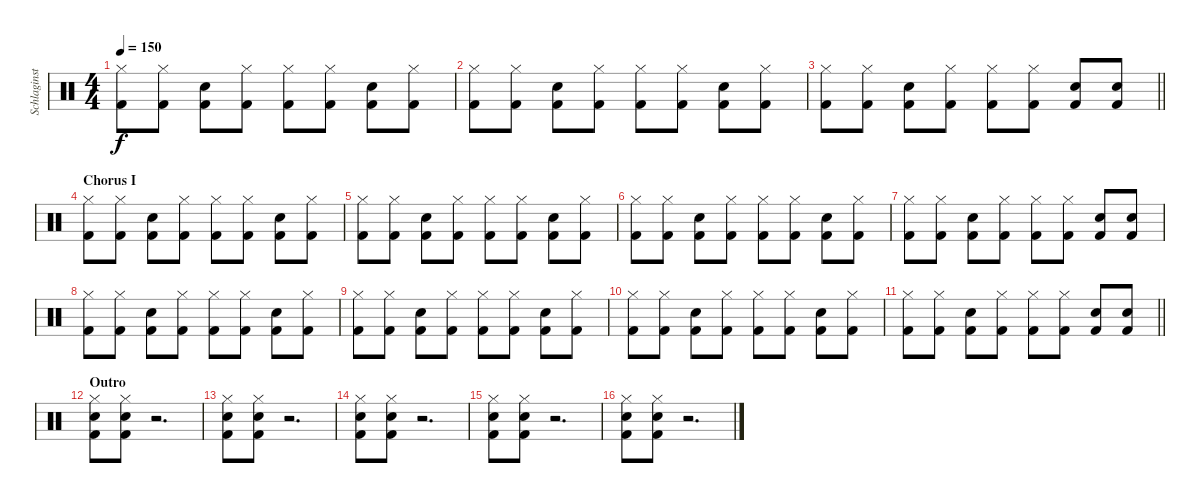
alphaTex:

\track ("Schlaginstrumente - Auswahl" "Schlaginst") {instrument percussion}
\staff {score}
\articulation defaults
\ts (4 4)
\tempo 150
\clef neutral
\ks c
("Hi-Hat (closed)" "Kick (hit) 2").8{dy f} ("Hi-Hat (closed)" "Kick (hit) 2").8 ("Snare (hit) 2" "Kick (hit) 2").8 ("Hi-Hat (closed)" "Kick (hit) 2").8 ("Hi-Hat (closed)" "Kick (hit) 2").8 ("Hi-Hat (closed)" "Kick (hit) 2").8 ("Snare (hit) 2" "Kick (hit) 2").8 ("Hi-Hat (closed)" "Kick (hit) 2").8 |
("Hi-Hat (closed)" "Kick (hit) 2").8 ("Hi-Hat (closed)" "Kick (hit) 2").8 ("Snare (hit) 2" "Kick (hit) 2").8 ("Hi-Hat (closed)" "Kick (hit) 2").8 ("Hi-Hat (closed)" "Kick (hit) 2").8 ("Hi-Hat (closed)" "Kick (hit) 2").8 ("Snare (hit) 2" "Kick (hit) 2").8 ("Hi-Hat (closed)" "Kick (hit) 2").8 |
\barLineRight lightlight
("Hi-Hat (closed)" "Kick (hit) 2").8 ("Hi-Hat (closed)" "Kick (hit) 2").8 ("Snare (hit) 2" "Kick (hit) 2").8 ("Hi-Hat (closed)" "Kick (hit) 2").8 ("Hi-Hat (closed)" "Kick (hit) 2").8 ("Hi-Hat (closed)" "Kick (hit) 2").8 ("Snare (hit) 2" "Kick (hit) 2").8 ("Snare (hit) 2" "Kick (hit) 2").8 |
\section ("" "Chorus I")
("Hi-Hat (closed)" "Kick (hit) 2").8 ("Hi-Hat (closed)" "Kick (hit) 2").8 ("Snare (hit) 2" "Kick (hit) 2").8 ("Hi-Hat (closed)" "Kick (hit) 2").8 ("Hi-Hat (closed)" "Kick (hit) 2").8 ("Hi-Hat (closed)" "Kick (hit) 2").8 ("Snare (hit) 2" "Kick (hit) 2").8 ("Hi-Hat (closed)" "Kick (hit) 2").8 |
("Hi-Hat (closed)" "Kick (hit) 2").8 ("Hi-Hat (closed)" "Kick (hit) 2").8 ("Snare (hit) 2" "Kick (hit) 2").8 ("Hi-Hat (closed)" "Kick (hit) 2").8 ("Hi-Hat (closed)" "Kick (hit) 2").8 ("Hi-Hat (closed)" "Kick (hit) 2").8 ("Snare (hit) 2" "Kick (hit) 2").8 ("Hi-Hat (closed)" "Kick (hit) 2").8 |
("Hi-Hat (closed)" "Kick (hit) 2").8 ("Hi-Hat (closed)" "Kick (hit) 2").8 ("Snare (hit) 2" "Kick (hit) 2").8 ("Hi-Hat (closed)" "Kick (hit) 2").8 ("Hi-Hat (closed)" "Kick (hit) 2").8 ("Hi-Hat (closed)" "Kick (hit) 2").8 ("Snare (hit) 2" "Kick (hit) 2").8 ("Hi-Hat (closed)" "Kick (hit) 2").8 |
("Hi-Hat (closed)" "Kick (hit) 2").8 ("Hi-Hat (closed)" "Kick (hit) 2").8 ("Snare (hit) 2" "Kick (hit) 2").8 ("Hi-Hat (closed)" "Kick (hit) 2").8 ("Hi-Hat (closed)" "Kick (hit) 2").8 ("Hi-Hat (closed)" "Kick (hit) 2").8 ("Snare (hit) 2" "Kick (hit) 2").8 ("Snare (hit) 2" "Kick (hit) 2").8 |
("Hi-Hat (closed)" "Kick (hit) 2").8 ("Hi-Hat (closed)" "Kick (hit) 2").8 ("Snare (hit) 2" "Kick (hit) 2").8 ("Hi-Hat (closed)" "Kick (hit) 2").8 ("Hi-Hat (closed)" "Kick (hit) 2").8 ("Hi-Hat (closed)" "Kick (hit) 2").8 ("Snare (hit) 2" "Kick (hit) 2").8 ("Hi-Hat (closed)" "Kick (hit) 2").8 |
("Hi-Hat (closed)" "Kick (hit) 2").8 ("Hi-Hat (closed)" "Kick (hit) 2").8 ("Snare (hit) 2" "Kick (hit) 2").8 ("Hi-Hat (closed)" "Kick (hit) 2").8 ("Hi-Hat (closed)" "Kick (hit) 2").8 ("Hi-Hat (closed)" "Kick (hit) 2").8 ("Snare (hit) 2" "Kick (hit) 2").8 ("Hi-Hat (closed)" "Kick (hit) 2").8 |
("Hi-Hat (closed)" "Kick (hit) 2").8 ("Hi-Hat (closed)" "Kick (hit) 2").8 ("Snare (hit) 2" "Kick (hit) 2").8 ("Hi-Hat (closed)" "Kick (hit) 2").8 ("Hi-Hat (closed)" "Kick (hit) 2").8 ("Hi-Hat (closed)" "Kick (hit) 2").8 ("Snare (hit) 2" "Kick (hit) 2").8 ("Hi-Hat (closed)" "Kick (hit) 2").8 |
\barLineRight lightlight
("Hi-Hat (closed)" "Kick (hit) 2").8 ("Hi-Hat (closed)" "Kick (hit) 2").8 ("Snare (hit) 2" "Kick (hit) 2").8 ("Hi-Hat (closed)" "Kick (hit) 2").8 ("Hi-Hat (closed)" "Kick (hit) 2").8 ("Hi-Hat (closed)" "Kick (hit) 2").8 ("Snare (hit) 2" "Kick (hit) 2").8 ("Snare (hit) 2" "Kick (hit) 2").8 |
\section ("" "Outro")
("Snare (hit) 2" "Hi-Hat (closed)" "Kick (hit) 2").8 ("Snare (hit) 2" "Hi-Hat (closed)" "Kick (hit) 2").8 r.2{d} |
("Snare (hit) 2" "Hi-Hat (closed)" "Kick (hit) 2").8 ("Snare (hit) 2" "Hi-Hat (closed)" "Kick (hit) 2").8 r.2{d} |
("Snare (hit) 2" "Hi-Hat (closed)" "Kick (hit) 2").8 ("Snare (hit) 2" "Hi-Hat (closed)" "Kick (hit) 2").8 r.2{d} |
("Snare (hit) 2" "Hi-Hat (closed)" "Kick (hit) 2").8 ("Snare (hit) 2" "Hi-Hat (closed)" "Kick (hit) 2").8 r.2{d} |
("Snare (hit) 2" "Hi-Hat (closed)" "Kick (hit) 2").8 ("Snare (hit) 2" "Hi-Hat (closed)" "Kick (hit) 2").8 r.2{d}
